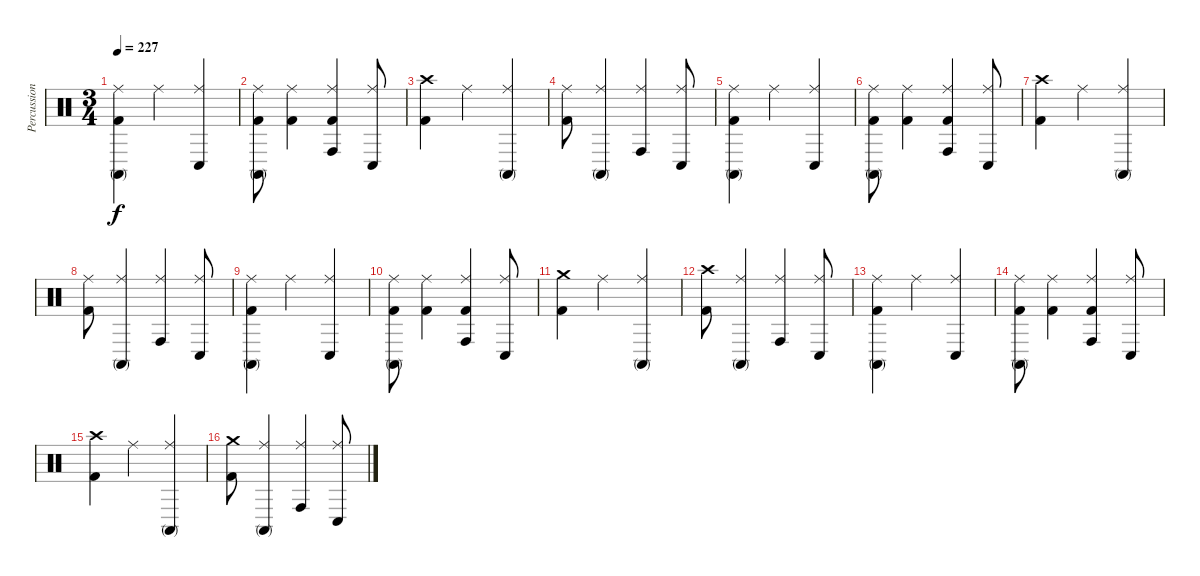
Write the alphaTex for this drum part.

\track ("Percussion" "Percussion") {instrument percussion}
\staff {score}
\articulation defaults
\ts (3 4)
\tempo 227
\clef neutral
\ks c
("Ride (middle)" "Conga high (mute)" "Kick (hit) 2").4{dy f} "Ride (middle)".4 ("Ride (middle)" "Conga low (hit)").4 |
("Ride (middle)" "Conga high (mute)" "Kick (hit) 2").8 ("Ride (middle)" "Kick (hit) 2").4 ("Ride (middle)" "Conga high (hit)" "Kick (hit) 2").4 ("Ride (middle)" "Conga low (hit)").8 |
("Crash high (hit)" "Kick (hit) 2").4 "Ride (middle)".4 ("Ride (middle)" "Conga high (mute)").4 |
("Ride (middle)" "Kick (hit) 2").8 ("Ride (middle)" "Conga high (mute)").4 ("Ride (middle)" "Conga high (hit)").4 ("Ride (middle)" "Conga low (hit)").8 |
("Ride (middle)" "Conga high (mute)" "Kick (hit) 2").4 "Ride (middle)".4 ("Ride (middle)" "Conga low (hit)").4 |
("Ride (middle)" "Conga high (mute)" "Kick (hit) 2").8 ("Ride (middle)" "Kick (hit) 2").4 ("Ride (middle)" "Conga high (hit)" "Kick (hit) 2").4 ("Ride (middle)" "Conga low (hit)").8 |
("Crash high (hit)" "Kick (hit) 2").4 "Ride (middle)".4 ("Ride (middle)" "Conga high (mute)").4 |
("Ride (middle)" "Kick (hit) 2").8 ("Ride (middle)" "Conga high (mute)").4 ("Ride (middle)" "Conga high (hit)").4 ("Ride (middle)" "Conga low (hit)").8 |
("Ride (middle)" "Conga high (mute)" "Kick (hit) 2").4 "Ride (middle)".4 ("Ride (middle)" "Conga low (hit)").4 |
("Ride (middle)" "Conga high (mute)" "Kick (hit) 2").8 ("Ride (middle)" "Kick (hit) 2").4 ("Ride (middle)" "Conga high (hit)" "Kick (hit) 2").4 ("Ride (middle)" "Conga low (hit)").8 |
("Crash medium (hit)" "Kick (hit) 2").4 "Ride (middle)".4 ("Ride (middle)" "Conga high (mute)").4 |
("Crash high (hit)" "Kick (hit) 2").8 ("Ride (middle)" "Conga high (mute)").4 ("Ride (middle)" "Conga high (hit)").4 ("Ride (middle)" "Conga low (hit)").8 |
("Ride (middle)" "Conga high (mute)" "Kick (hit) 2").4 "Ride (middle)".4 ("Ride (middle)" "Conga low (hit)").4 |
("Ride (middle)" "Conga high (mute)" "Kick (hit) 2").8 ("Ride (middle)" "Kick (hit) 2").4 ("Ride (middle)" "Conga high (hit)" "Kick (hit) 2").4 ("Ride (middle)" "Conga low (hit)").8 |
("Crash high (hit)" "Kick (hit) 2").4 "Ride (middle)".4 ("Ride (middle)" "Conga high (mute)").4 |
("Crash medium (hit)" "Kick (hit) 2").8 ("Ride (middle)" "Conga high (mute)").4 ("Ride (middle)" "Conga high (hit)").4 ("Ride (middle)" "Conga low (hit)").8
